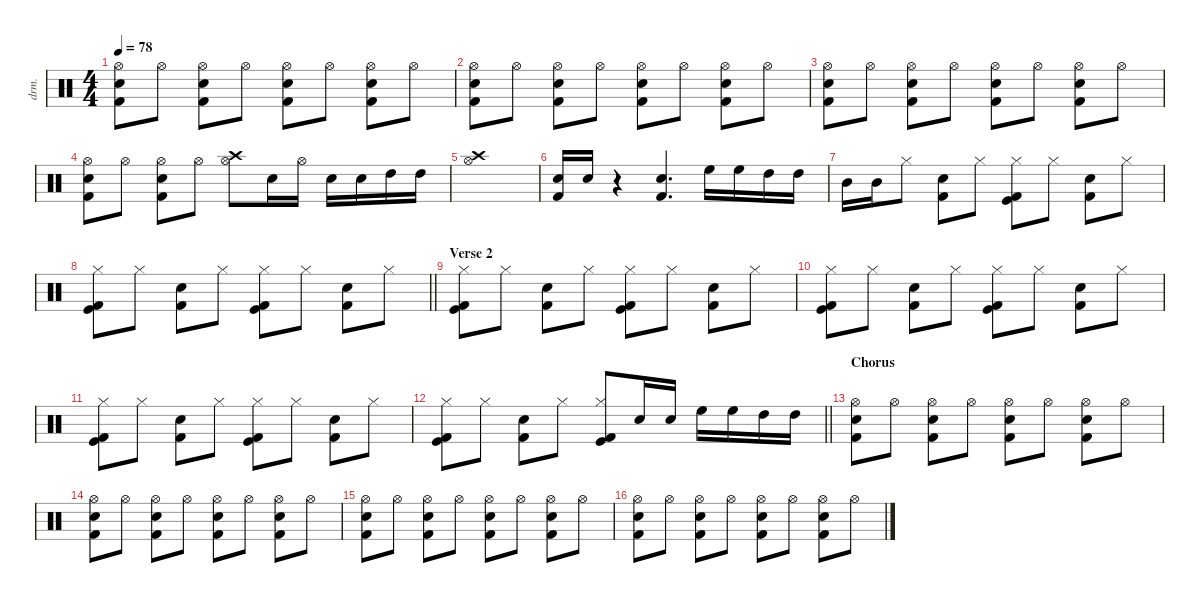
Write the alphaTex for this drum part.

\defaultSystemsLayout 4
\hideDynamics
\bracketExtendMode nobrackets
\otherSystemsTrackNameOrientation horizontal
\track ("Drums" "drm.") {instrument percussion}
\staff {score}
\articulation defaults
\ts (4 4)
\tempo 78
\clef neutral
\ks c
("Hi-Hat (open)" "Snare (hit) 2" "Kick (hit) 2").8{dy f} "Hi-Hat (open)".8 ("Hi-Hat (open)" "Snare (hit) 2" "Kick (hit) 2").8 "Hi-Hat (open)".8 ("Hi-Hat (open)" "Snare (hit) 2" "Kick (hit) 2").8 "Hi-Hat (open)".8 ("Hi-Hat (open)" "Snare (hit) 2" "Kick (hit) 2").8 "Hi-Hat (open)".8 |
("Hi-Hat (open)" "Snare (hit) 2" "Kick (hit) 2").8 "Hi-Hat (open)".8 ("Hi-Hat (open)" "Snare (hit) 2" "Kick (hit) 2").8 "Hi-Hat (open)".8 ("Hi-Hat (open)" "Snare (hit) 2" "Kick (hit) 2").8 "Hi-Hat (open)".8 ("Hi-Hat (open)" "Snare (hit) 2" "Kick (hit) 2").8 "Hi-Hat (open)".8 |
("Hi-Hat (open)" "Snare (hit) 2" "Kick (hit) 2").8 "Hi-Hat (open)".8 ("Hi-Hat (open)" "Snare (hit) 2" "Kick (hit) 2").8 "Hi-Hat (open)".8 ("Hi-Hat (open)" "Snare (hit) 2" "Kick (hit) 2").8 "Hi-Hat (open)".8 ("Hi-Hat (open)" "Snare (hit) 2" "Kick (hit) 2").8 "Hi-Hat (open)".8 |
("Hi-Hat (open)" "Snare (hit) 2" "Kick (hit) 2").8 "Hi-Hat (open)".8 ("Hi-Hat (open)" "Snare (hit) 2" "Kick (hit) 2").8 "Hi-Hat (open)".8 ("Crash high (hit)" "Hi-Hat (open)").8 "Snare (hit) 2".16 "Hi-Hat (open)".16 "Snare (hit) 2".16 "Snare (hit) 2".16 "High Tom (hit)".16 "High Tom (hit)".16 |
("Crash high (hit)" "Hi-Hat (open)").1 |
("Snare (hit) 2" "Kick (hit) 2").16 "Snare (hit) 2".16 r.4 ("Snare (hit) 2" "Kick (hit) 2").4{d} "High Floor Tom (hit)".16 "High Floor Tom (hit)".16 "High Tom (hit)".16 "High Tom (hit)".16 |
"Mid Tom (hit)".16 "Mid Tom (hit)".16 "Hi-Hat (closed)".8 ("Snare (hit) 2" "Kick (hit) 2").8 "Hi-Hat (closed)".8 ("Hi-Hat (closed)" "Kick (hit)" "Kick (hit) 2").8 "Hi-Hat (closed)".8 ("Snare (hit) 2" "Kick (hit) 2").8 "Hi-Hat (closed)".8 |
\barLineRight lightlight
("Hi-Hat (closed)" "Kick (hit)" "Kick (hit) 2").8 "Hi-Hat (closed)".8 ("Snare (hit) 2" "Kick (hit) 2").8 "Hi-Hat (closed)".8 ("Hi-Hat (closed)" "Kick (hit)" "Kick (hit) 2").8 "Hi-Hat (closed)".8 ("Snare (hit) 2" "Kick (hit) 2").8 "Hi-Hat (closed)".8 |
\section ("" "Verse 2")
("Hi-Hat (closed)" "Kick (hit)" "Kick (hit) 2").8{dy mf} "Hi-Hat (closed)".8 ("Snare (hit) 2" "Kick (hit) 2").8 "Hi-Hat (closed)".8 ("Hi-Hat (closed)" "Kick (hit)" "Kick (hit) 2").8 "Hi-Hat (closed)".8 ("Snare (hit) 2" "Kick (hit) 2").8 "Hi-Hat (closed)".8 |
("Hi-Hat (closed)" "Kick (hit)" "Kick (hit) 2").8 "Hi-Hat (closed)".8 ("Snare (hit) 2" "Kick (hit) 2").8 "Hi-Hat (closed)".8 ("Hi-Hat (closed)" "Kick (hit)" "Kick (hit) 2").8 "Hi-Hat (closed)".8 ("Snare (hit) 2" "Kick (hit) 2").8 "Hi-Hat (closed)".8 |
("Hi-Hat (closed)" "Kick (hit)" "Kick (hit) 2").8 "Hi-Hat (closed)".8 ("Snare (hit) 2" "Kick (hit) 2").8 "Hi-Hat (closed)".8 ("Hi-Hat (closed)" "Kick (hit)" "Kick (hit) 2").8 "Hi-Hat (closed)".8 ("Snare (hit) 2" "Kick (hit) 2").8 "Hi-Hat (closed)".8 |
\barLineRight lightlight
("Hi-Hat (closed)" "Kick (hit)" "Kick (hit) 2").8 "Hi-Hat (closed)".8 ("Snare (hit) 2" "Kick (hit) 2").8 "Hi-Hat (closed)".8 ("Hi-Hat (closed)" "Kick (hit)" "Kick (hit) 2").8 "Snare (hit) 2".16{dy f} "Snare (hit) 2".16 "High Floor Tom (hit)".16 "High Floor Tom (hit)".16 "High Tom (hit)".16 "High Tom (hit)".16 |
\section ("" "Chorus")
("Hi-Hat (open)" "Snare (hit) 2" "Kick (hit) 2").8 "Hi-Hat (open)".8 ("Hi-Hat (open)" "Snare (hit) 2" "Kick (hit) 2").8 "Hi-Hat (open)".8 ("Hi-Hat (open)" "Snare (hit) 2" "Kick (hit) 2").8 "Hi-Hat (open)".8 ("Hi-Hat (open)" "Snare (hit) 2" "Kick (hit) 2").8 "Hi-Hat (open)".8 |
("Hi-Hat (open)" "Snare (hit) 2" "Kick (hit) 2").8 "Hi-Hat (open)".8 ("Hi-Hat (open)" "Snare (hit) 2" "Kick (hit) 2").8 "Hi-Hat (open)".8 ("Hi-Hat (open)" "Snare (hit) 2" "Kick (hit) 2").8 "Hi-Hat (open)".8 ("Hi-Hat (open)" "Snare (hit) 2" "Kick (hit) 2").8 "Hi-Hat (open)".8 |
("Hi-Hat (open)" "Snare (hit) 2" "Kick (hit) 2").8 "Hi-Hat (open)".8 ("Hi-Hat (open)" "Snare (hit) 2" "Kick (hit) 2").8 "Hi-Hat (open)".8 ("Hi-Hat (open)" "Snare (hit) 2" "Kick (hit) 2").8 "Hi-Hat (open)".8 ("Hi-Hat (open)" "Snare (hit) 2" "Kick (hit) 2").8 "Hi-Hat (open)".8 |
("Hi-Hat (open)" "Snare (hit) 2" "Kick (hit) 2").8 "Hi-Hat (open)".8 ("Hi-Hat (open)" "Snare (hit) 2" "Kick (hit) 2").8 "Hi-Hat (open)".8 ("Hi-Hat (open)" "Snare (hit) 2" "Kick (hit) 2").8 "Hi-Hat (open)".8 ("Hi-Hat (open)" "Snare (hit) 2" "Kick (hit) 2").8 "Hi-Hat (open)".8
